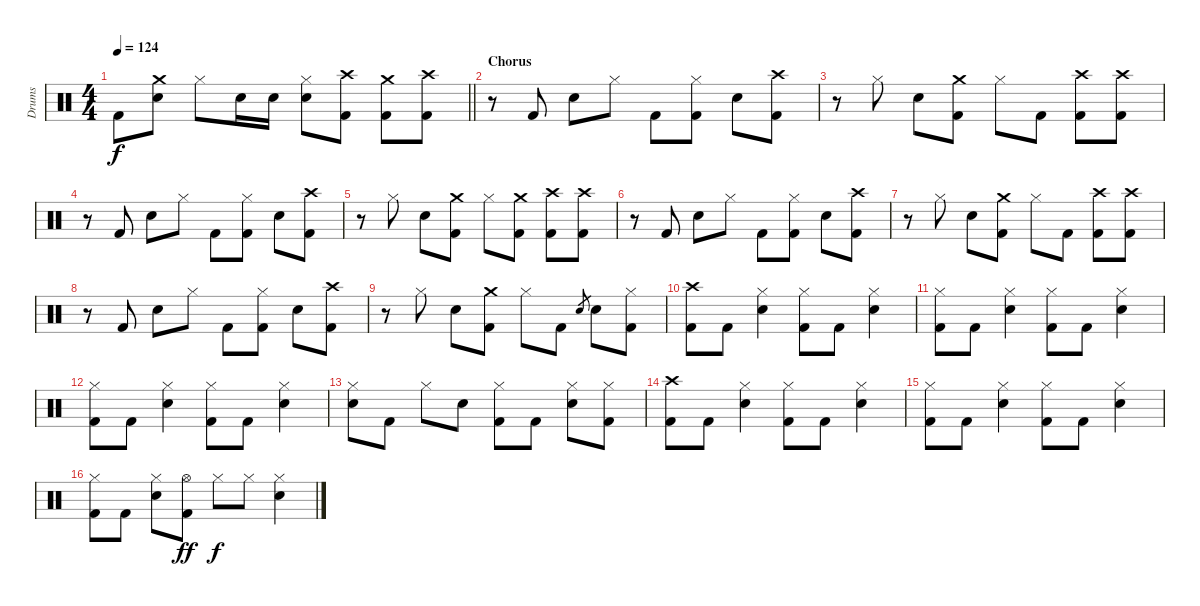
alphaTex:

\track ("Drums" "Drums") {instrument percussion}
\staff {score}
\articulation defaults
\ts (4 4)
\tempo 124
\clef neutral
\barLineRight lightlight
\ks c "Kick (hit) 2".8{dy f}
("Snare (hit) 2" "Crash medium (hit)").8 "Hi-Hat (closed)".8 "Snare (hit) 2".16 "Snare (hit) 2".16 ("Snare (hit) 2" "Hi-Hat (closed)").8 ("Kick (hit) 2" "Crash high (hit)").8 ("Kick (hit) 2" "Crash medium (hit)").8 ("Kick (hit) 2" "Crash high (hit)").8 |
\section ("" "Chorus")
r.8 "Kick (hit) 2".8 "Snare (hit) 2".8 "Hi-Hat (closed)".8 "Kick (hit) 2".8 ("Kick (hit) 2" "Hi-Hat (closed)").8 "Snare (hit) 2".8 ("Kick (hit) 2" "Crash high (hit)").8 |
r.8 "Hi-Hat (closed)".8 "Snare (hit) 2".8 ("Kick (hit) 2" "Crash medium (hit)").8 "Hi-Hat (closed)".8 "Kick (hit) 2".8 ("Kick (hit) 2" "Crash high (hit)").8 ("Kick (hit) 2" "Crash high (hit)").8 |
r.8 "Kick (hit) 2".8 "Snare (hit) 2".8 "Hi-Hat (closed)".8 "Kick (hit) 2".8 ("Kick (hit) 2" "Hi-Hat (closed)").8 "Snare (hit) 2".8 ("Kick (hit) 2" "Crash high (hit)").8 |
r.8 "Hi-Hat (closed)".8 "Snare (hit) 2".8 ("Kick (hit) 2" "Crash medium (hit)").8 "Hi-Hat (closed)".8 ("Kick (hit) 2" "Crash medium (hit)").8 ("Kick (hit) 2" "Crash high (hit)").8 ("Kick (hit) 2" "Crash high (hit)").8 |
r.8 "Kick (hit) 2".8 "Snare (hit) 2".8 "Hi-Hat (closed)".8 "Kick (hit) 2".8 ("Kick (hit) 2" "Hi-Hat (closed)").8 "Snare (hit) 2".8 ("Kick (hit) 2" "Crash high (hit)").8 |
r.8 "Hi-Hat (closed)".8 "Snare (hit) 2".8 ("Kick (hit) 2" "Crash medium (hit)").8 "Hi-Hat (closed)".8 "Kick (hit) 2".8 ("Kick (hit) 2" "Crash high (hit)").8 ("Kick (hit) 2" "Crash high (hit)").8 |
r.8 "Kick (hit) 2".8 "Snare (hit) 2".8 "Hi-Hat (closed)".8 "Kick (hit) 2".8 ("Kick (hit) 2" "Hi-Hat (closed)").8 "Snare (hit) 2".8 ("Kick (hit) 2" "Crash high (hit)").8 |
r.8 "Hi-Hat (closed)".8 "Snare (hit) 2".8 ("Kick (hit) 2" "Crash medium (hit)").8 "Hi-Hat (closed)".8 "Kick (hit) 2".8 "Snare (hit) 2".8{gr} "Snare (hit) 2".8 ("Kick (hit) 2" "Hi-Hat (closed)").8 |
("Kick (hit) 2" "Crash high (hit)").8 "Kick (hit) 2".8 ("Snare (hit) 2" "Hi-Hat (closed)").4 ("Kick (hit) 2" "Hi-Hat (closed)").8 "Kick (hit) 2".8 ("Snare (hit) 2" "Hi-Hat (closed)").4 |
("Kick (hit) 2" "Hi-Hat (closed)").8 "Kick (hit) 2".8 ("Snare (hit) 2" "Hi-Hat (closed)").4 ("Kick (hit) 2" "Hi-Hat (closed)").8 "Kick (hit) 2".8 ("Snare (hit) 2" "Hi-Hat (closed)").4 |
("Kick (hit) 2" "Hi-Hat (closed)").8 "Kick (hit) 2".8 ("Snare (hit) 2" "Hi-Hat (closed)").4 ("Kick (hit) 2" "Hi-Hat (closed)").8 "Kick (hit) 2".8 ("Snare (hit) 2" "Hi-Hat (closed)").4 |
("Snare (hit) 2" "Hi-Hat (closed)").8 "Kick (hit) 2".8 "Hi-Hat (closed)".8 "Snare (hit) 2".8 ("Kick (hit) 2" "Hi-Hat (closed)").8 "Kick (hit) 2".8 ("Snare (hit) 2" "Hi-Hat (closed)").8 ("Kick (hit) 2" "Hi-Hat (closed)").8 |
("Kick (hit) 2" "Crash high (hit)").8 "Kick (hit) 2".8 ("Snare (hit) 2" "Hi-Hat (closed)").4 ("Kick (hit) 2" "Hi-Hat (closed)").8 "Kick (hit) 2".8 ("Snare (hit) 2" "Hi-Hat (closed)").4 |
("Kick (hit) 2" "Hi-Hat (closed)").8 "Kick (hit) 2".8 ("Snare (hit) 2" "Hi-Hat (closed)").4 ("Kick (hit) 2" "Hi-Hat (closed)").8 "Kick (hit) 2".8 ("Snare (hit) 2" "Hi-Hat (closed)").4 |
("Kick (hit) 2" "Hi-Hat (closed)").8 "Kick (hit) 2".8 ("Snare (hit) 2" "Hi-Hat (closed)").8 ("Kick (hit) 2" "Hi-Hat (open)").8{dy ff} "Hi-Hat (closed)".8{dy f} "Hi-Hat (closed)".8 ("Snare (hit) 2" "Hi-Hat (closed)").4
